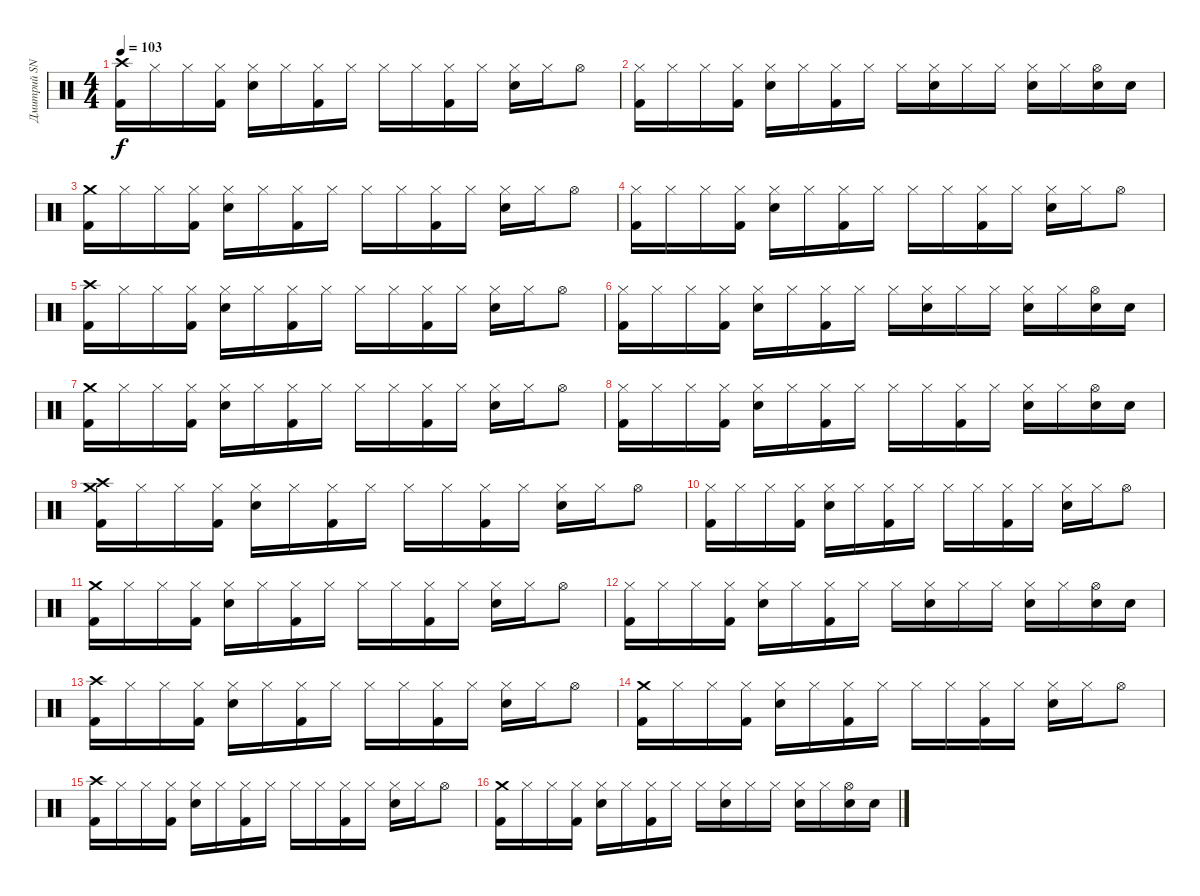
\track ("Дмитрий SNAKE Хакимов" "Дмитрий SN") {instrument percussion}
\staff {score}
\articulation defaults
\ts (4 4)
\tempo 103
\clef neutral
\ks c
("Crash high (hit)" "Kick (hit) 2").16{dy f} "Hi-Hat (closed)".16 "Hi-Hat (closed)".16 ("Hi-Hat (closed)" "Kick (hit) 2").16 ("Hi-Hat (closed)" "Electric Snare (hit)").16 "Hi-Hat (closed)".16 ("Hi-Hat (closed)" "Kick (hit) 2").16 "Hi-Hat (closed)".16 "Hi-Hat (closed)".16 "Hi-Hat (closed)".16 ("Hi-Hat (closed)" "Kick (hit) 2").16 "Hi-Hat (closed)".16 ("Hi-Hat (closed)" "Electric Snare (hit)").16 "Hi-Hat (closed)".16 "Hi-Hat (open)".8 |
("Hi-Hat (closed)" "Kick (hit) 2").16 "Hi-Hat (closed)".16 "Hi-Hat (closed)".16 ("Hi-Hat (closed)" "Kick (hit) 2").16 ("Hi-Hat (closed)" "Electric Snare (hit)").16 "Hi-Hat (closed)".16 ("Hi-Hat (closed)" "Kick (hit) 2").16 "Hi-Hat (closed)".16 "Hi-Hat (closed)".16 ("Hi-Hat (closed)" "Electric Snare (hit)").16 "Hi-Hat (closed)".16 "Hi-Hat (closed)".16 ("Hi-Hat (closed)" "Electric Snare (hit)").16 "Hi-Hat (closed)".16 ("Hi-Hat (open)" "Electric Snare (hit)").16 "Electric Snare (hit)".16 |
("Crash medium (hit)" "Kick (hit) 2").16 "Hi-Hat (closed)".16 "Hi-Hat (closed)".16 ("Hi-Hat (closed)" "Kick (hit) 2").16 ("Hi-Hat (closed)" "Electric Snare (hit)").16 "Hi-Hat (closed)".16 ("Hi-Hat (closed)" "Kick (hit) 2").16 "Hi-Hat (closed)".16 "Hi-Hat (closed)".16 "Hi-Hat (closed)".16 ("Hi-Hat (closed)" "Kick (hit) 2").16 "Hi-Hat (closed)".16 ("Hi-Hat (closed)" "Electric Snare (hit)").16 "Hi-Hat (closed)".16 "Hi-Hat (open)".8 |
("Hi-Hat (closed)" "Kick (hit) 2").16 "Hi-Hat (closed)".16 "Hi-Hat (closed)".16 ("Hi-Hat (closed)" "Kick (hit) 2").16 ("Hi-Hat (closed)" "Electric Snare (hit)").16 "Hi-Hat (closed)".16 ("Hi-Hat (closed)" "Kick (hit) 2").16 "Hi-Hat (closed)".16 "Hi-Hat (closed)".16 "Hi-Hat (closed)".16 ("Hi-Hat (closed)" "Kick (hit) 2").16 "Hi-Hat (closed)".16 ("Hi-Hat (closed)" "Electric Snare (hit)").16 "Hi-Hat (closed)".16 "Hi-Hat (open)".8 |
("Crash high (hit)" "Kick (hit) 2").16 "Hi-Hat (closed)".16 "Hi-Hat (closed)".16 ("Hi-Hat (closed)" "Kick (hit) 2").16 ("Hi-Hat (closed)" "Electric Snare (hit)").16 "Hi-Hat (closed)".16 ("Hi-Hat (closed)" "Kick (hit) 2").16 "Hi-Hat (closed)".16 "Hi-Hat (closed)".16 "Hi-Hat (closed)".16 ("Hi-Hat (closed)" "Kick (hit) 2").16 "Hi-Hat (closed)".16 ("Hi-Hat (closed)" "Electric Snare (hit)").16 "Hi-Hat (closed)".16 "Hi-Hat (open)".8 |
("Hi-Hat (closed)" "Kick (hit) 2").16 "Hi-Hat (closed)".16 "Hi-Hat (closed)".16 ("Hi-Hat (closed)" "Kick (hit) 2").16 ("Hi-Hat (closed)" "Electric Snare (hit)").16 "Hi-Hat (closed)".16 ("Hi-Hat (closed)" "Kick (hit) 2").16 "Hi-Hat (closed)".16 "Hi-Hat (closed)".16 ("Hi-Hat (closed)" "Electric Snare (hit)").16 "Hi-Hat (closed)".16 "Hi-Hat (closed)".16 ("Hi-Hat (closed)" "Electric Snare (hit)").16 "Hi-Hat (closed)".16 ("Hi-Hat (open)" "Electric Snare (hit)").16 "Electric Snare (hit)".16 |
("Crash medium (hit)" "Kick (hit) 2").16 "Hi-Hat (closed)".16 "Hi-Hat (closed)".16 ("Hi-Hat (closed)" "Kick (hit) 2").16 ("Hi-Hat (closed)" "Electric Snare (hit)").16 "Hi-Hat (closed)".16 ("Hi-Hat (closed)" "Kick (hit) 2").16 "Hi-Hat (closed)".16 "Hi-Hat (closed)".16 "Hi-Hat (closed)".16 ("Hi-Hat (closed)" "Kick (hit) 2").16 "Hi-Hat (closed)".16 ("Hi-Hat (closed)" "Electric Snare (hit)").16 "Hi-Hat (closed)".16 "Hi-Hat (open)".8 |
("Hi-Hat (closed)" "Kick (hit) 2").16 "Hi-Hat (closed)".16 "Hi-Hat (closed)".16 ("Hi-Hat (closed)" "Kick (hit) 2").16 ("Hi-Hat (closed)" "Electric Snare (hit)").16 "Hi-Hat (closed)".16 ("Hi-Hat (closed)" "Kick (hit) 2").16 "Hi-Hat (closed)".16 "Hi-Hat (closed)".16 "Hi-Hat (closed)".16 ("Hi-Hat (closed)" "Kick (hit) 2").16 "Hi-Hat (closed)".16 ("Hi-Hat (closed)" "Electric Snare (hit)").16 "Hi-Hat (closed)".16 ("Hi-Hat (open)" "Electric Snare (hit)").16 "Electric Snare (hit)".16 |
("Crash high (hit)" "Crash medium (hit)" "Kick (hit) 2").16 "Hi-Hat (closed)".16 "Hi-Hat (closed)".16 ("Hi-Hat (closed)" "Kick (hit) 2").16 ("Hi-Hat (closed)" "Electric Snare (hit)").16 "Hi-Hat (closed)".16 ("Hi-Hat (closed)" "Kick (hit) 2").16 "Hi-Hat (closed)".16 "Hi-Hat (closed)".16 "Hi-Hat (closed)".16 ("Hi-Hat (closed)" "Kick (hit) 2").16 "Hi-Hat (closed)".16 ("Hi-Hat (closed)" "Electric Snare (hit)").16 "Hi-Hat (closed)".16 "Hi-Hat (open)".8 |
("Hi-Hat (closed)" "Kick (hit) 2").16 "Hi-Hat (closed)".16 "Hi-Hat (closed)".16 ("Hi-Hat (closed)" "Kick (hit) 2").16 ("Hi-Hat (closed)" "Electric Snare (hit)").16 "Hi-Hat (closed)".16 ("Hi-Hat (closed)" "Kick (hit) 2").16 "Hi-Hat (closed)".16 "Hi-Hat (closed)".16 "Hi-Hat (closed)".16 ("Hi-Hat (closed)" "Kick (hit) 2").16 "Hi-Hat (closed)".16 ("Hi-Hat (closed)" "Electric Snare (hit)").16 "Hi-Hat (closed)".16 "Hi-Hat (open)".8 |
("Crash medium (hit)" "Kick (hit) 2").16 "Hi-Hat (closed)".16 "Hi-Hat (closed)".16 ("Hi-Hat (closed)" "Kick (hit) 2").16 ("Hi-Hat (closed)" "Electric Snare (hit)").16 "Hi-Hat (closed)".16 ("Hi-Hat (closed)" "Kick (hit) 2").16 "Hi-Hat (closed)".16 "Hi-Hat (closed)".16 "Hi-Hat (closed)".16 ("Hi-Hat (closed)" "Kick (hit) 2").16 "Hi-Hat (closed)".16 ("Hi-Hat (closed)" "Electric Snare (hit)").16 "Hi-Hat (closed)".16 "Hi-Hat (open)".8 |
("Hi-Hat (closed)" "Kick (hit) 2").16 "Hi-Hat (closed)".16 "Hi-Hat (closed)".16 ("Hi-Hat (closed)" "Kick (hit) 2").16 ("Hi-Hat (closed)" "Electric Snare (hit)").16 "Hi-Hat (closed)".16 ("Hi-Hat (closed)" "Kick (hit) 2").16 "Hi-Hat (closed)".16 "Hi-Hat (closed)".16 ("Hi-Hat (closed)" "Electric Snare (hit)").16 "Hi-Hat (closed)".16 "Hi-Hat (closed)".16 ("Hi-Hat (closed)" "Electric Snare (hit)").16 "Hi-Hat (closed)".16 ("Hi-Hat (open)" "Electric Snare (hit)").16 "Electric Snare (hit)".16 |
("Crash high (hit)" "Kick (hit) 2").16 "Hi-Hat (closed)".16 "Hi-Hat (closed)".16 ("Hi-Hat (closed)" "Kick (hit) 2").16 ("Hi-Hat (closed)" "Electric Snare (hit)").16 "Hi-Hat (closed)".16 ("Hi-Hat (closed)" "Kick (hit) 2").16 "Hi-Hat (closed)".16 "Hi-Hat (closed)".16 "Hi-Hat (closed)".16 ("Hi-Hat (closed)" "Kick (hit) 2").16 "Hi-Hat (closed)".16 ("Hi-Hat (closed)" "Electric Snare (hit)").16 "Hi-Hat (closed)".16 "Hi-Hat (open)".8 |
("Crash medium (hit)" "Kick (hit) 2").16 "Hi-Hat (closed)".16 "Hi-Hat (closed)".16 ("Hi-Hat (closed)" "Kick (hit) 2").16 ("Hi-Hat (closed)" "Electric Snare (hit)").16 "Hi-Hat (closed)".16 ("Hi-Hat (closed)" "Kick (hit) 2").16 "Hi-Hat (closed)".16 "Hi-Hat (closed)".16 "Hi-Hat (closed)".16 ("Hi-Hat (closed)" "Kick (hit) 2").16 "Hi-Hat (closed)".16 ("Hi-Hat (closed)" "Electric Snare (hit)").16 "Hi-Hat (closed)".16 "Hi-Hat (open)".8 |
("Crash high (hit)" "Kick (hit) 2").16 "Hi-Hat (closed)".16 "Hi-Hat (closed)".16 ("Hi-Hat (closed)" "Kick (hit) 2").16 ("Hi-Hat (closed)" "Electric Snare (hit)").16 "Hi-Hat (closed)".16 ("Hi-Hat (closed)" "Kick (hit) 2").16 "Hi-Hat (closed)".16 "Hi-Hat (closed)".16 "Hi-Hat (closed)".16 ("Hi-Hat (closed)" "Kick (hit) 2").16 "Hi-Hat (closed)".16 ("Hi-Hat (closed)" "Electric Snare (hit)").16 "Hi-Hat (closed)".16 "Hi-Hat (open)".8 |
("Crash medium (hit)" "Kick (hit) 2").16 "Hi-Hat (closed)".16 "Hi-Hat (closed)".16 ("Hi-Hat (closed)" "Kick (hit) 2").16 ("Hi-Hat (closed)" "Electric Snare (hit)").16 "Hi-Hat (closed)".16 ("Hi-Hat (closed)" "Kick (hit) 2").16 "Hi-Hat (closed)".16 "Hi-Hat (closed)".16 ("Hi-Hat (closed)" "Electric Snare (hit)").16 "Hi-Hat (closed)".16 "Hi-Hat (closed)".16 ("Hi-Hat (closed)" "Electric Snare (hit)").16 "Hi-Hat (closed)".16 ("Hi-Hat (open)" "Electric Snare (hit)").16 "Electric Snare (hit)".16
